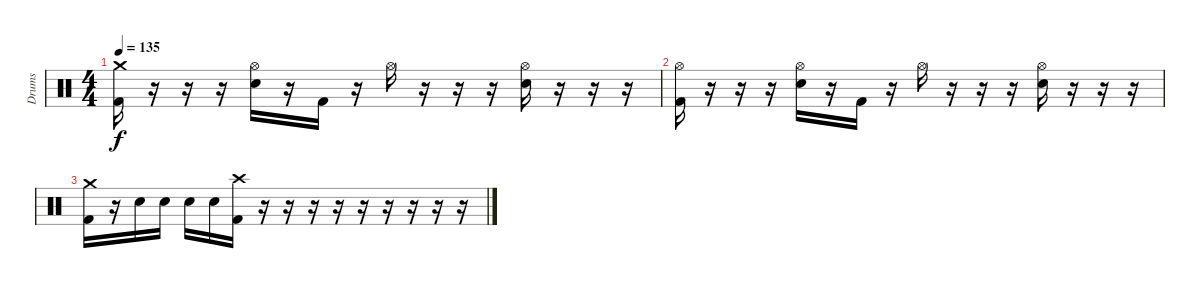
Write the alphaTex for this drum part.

\track ("Drums" "Drums") {instrument percussion}
\staff {score}
\articulation defaults
\ts (4 4)
\tempo 135
\clef neutral
\ks c
("Crash medium (hit)" "Kick (hit) 2").16{dy f} r.16 r.16 r.16 ("Hi-Hat (open)" "Electric Snare (hit)").16 r.16 "Kick (hit) 2".16 r.16 "Hi-Hat (open)".16 r.16 r.16 r.16 ("Hi-Hat (open)" "Electric Snare (hit)").16 r.16 r.16 r.16 |
("Hi-Hat (open)" "Kick (hit) 2").16 r.16 r.16 r.16 ("Hi-Hat (open)" "Electric Snare (hit)").16 r.16 "Kick (hit) 2".16 r.16 "Hi-Hat (open)".16 r.16 r.16 r.16 ("Hi-Hat (open)" "Electric Snare (hit)").16 r.16 r.16 r.16 |
("Crash medium (hit)" "Kick (hit) 2").16 r.16 "Electric Snare (hit)".16 "Electric Snare (hit)".16 "Electric Snare (hit)".16 "Electric Snare (hit)".16 ("Crash high (hit)" "Kick (hit) 2").16 r.16 r.16 r.16 r.16 r.16 r.16 r.16 r.16 r.16
